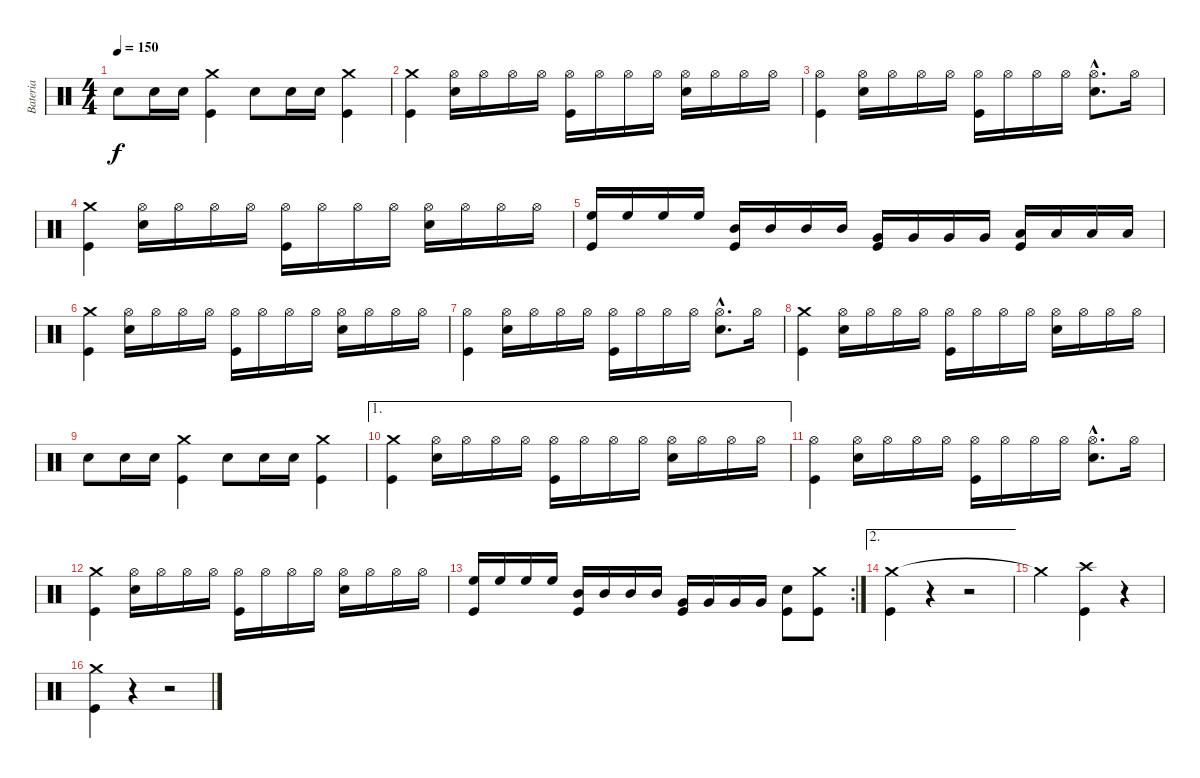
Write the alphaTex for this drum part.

\track ("Bateria" "Bateria") {instrument percussion}
\staff {score}
\articulation defaults
\ts (4 4)
\tempo 150
\clef neutral
\ks c "Snare (hit) 2".8{dy f} "Snare (hit) 2".16 "Snare (hit) 2".16
("Crash medium (hit)" "Kick (hit)").4 "Snare (hit) 2".8 "Snare (hit) 2".16 "Snare (hit) 2".16 ("Crash medium (hit)" "Kick (hit)").4 |
("Crash medium (hit)" "Kick (hit)").4 ("Hi-Hat (open)" "Snare (hit) 2").16 "Hi-Hat (open)".16 "Hi-Hat (open)".16 "Hi-Hat (open)".16 ("Hi-Hat (open)" "Kick (hit)").16 "Hi-Hat (open)".16 "Hi-Hat (open)".16 "Hi-Hat (open)".16 ("Hi-Hat (open)" "Snare (hit) 2").16 "Hi-Hat (open)".16 "Hi-Hat (open)".16 "Hi-Hat (open)".16 |
("Hi-Hat (open)" "Kick (hit)").4 ("Hi-Hat (open)" "Snare (hit) 2").16 "Hi-Hat (open)".16 "Hi-Hat (open)".16 "Hi-Hat (open)".16 ("Hi-Hat (open)" "Kick (hit)").16 "Hi-Hat (open)".16 "Hi-Hat (open)".16 "Hi-Hat (open)".16 ("Hi-Hat (open)"{hac} "Snare (hit) 2"{hac}).8{d} "Hi-Hat (open)".16 |
("Crash medium (hit)" "Kick (hit)").4 ("Hi-Hat (open)" "Snare (hit) 2").16 "Hi-Hat (open)".16 "Hi-Hat (open)".16 "Hi-Hat (open)".16 ("Hi-Hat (open)" "Kick (hit)").16 "Hi-Hat (open)".16 "Hi-Hat (open)".16 "Hi-Hat (open)".16 ("Hi-Hat (open)" "Snare (hit) 2").16 "Hi-Hat (open)".16 "Hi-Hat (open)".16 "Hi-Hat (open)".16 |
("High Floor Tom (hit)" "Kick (hit)").16 "High Floor Tom (hit)".16 "High Floor Tom (hit)".16 "High Floor Tom (hit)".16 ("Mid Tom (hit)" "Kick (hit)").16 "Mid Tom (hit)".16 "Mid Tom (hit)".16 "Mid Tom (hit)".16 ("Very Low Tom (hit)" "Kick (hit)").16 "Very Low Tom (hit)".16 "Very Low Tom (hit)".16 "Very Low Tom (hit)".16 ("Low Floor Tom (hit)" "Kick (hit)").16 "Low Floor Tom (hit)".16 "Low Floor Tom (hit)".16 "Low Floor Tom (hit)".16 |
("Crash medium (hit)" "Kick (hit)").4 ("Hi-Hat (open)" "Snare (hit) 2").16 "Hi-Hat (open)".16 "Hi-Hat (open)".16 "Hi-Hat (open)".16 ("Hi-Hat (open)" "Kick (hit)").16 "Hi-Hat (open)".16 "Hi-Hat (open)".16 "Hi-Hat (open)".16 ("Hi-Hat (open)" "Snare (hit) 2").16 "Hi-Hat (open)".16 "Hi-Hat (open)".16 "Hi-Hat (open)".16 |
("Hi-Hat (open)" "Kick (hit)").4 ("Hi-Hat (open)" "Snare (hit) 2").16 "Hi-Hat (open)".16 "Hi-Hat (open)".16 "Hi-Hat (open)".16 ("Hi-Hat (open)" "Kick (hit)").16 "Hi-Hat (open)".16 "Hi-Hat (open)".16 "Hi-Hat (open)".16 ("Hi-Hat (open)"{hac} "Snare (hit) 2"{hac}).8{d} "Hi-Hat (open)".16 |
("Crash medium (hit)" "Kick (hit)").4 ("Hi-Hat (open)" "Snare (hit) 2").16 "Hi-Hat (open)".16 "Hi-Hat (open)".16 "Hi-Hat (open)".16 ("Hi-Hat (open)" "Kick (hit)").16 "Hi-Hat (open)".16 "Hi-Hat (open)".16 "Hi-Hat (open)".16 ("Hi-Hat (open)" "Snare (hit) 2").16 "Hi-Hat (open)".16 "Hi-Hat (open)".16 "Hi-Hat (open)".16 |
"Snare (hit) 2".8 "Snare (hit) 2".16 "Snare (hit) 2".16 ("Crash medium (hit)" "Kick (hit)").4 "Snare (hit) 2".8 "Snare (hit) 2".16 "Snare (hit) 2".16 ("Crash medium (hit)" "Kick (hit)").4 |
\ae 1
("Crash medium (hit)" "Kick (hit)").4 ("Hi-Hat (open)" "Snare (hit) 2").16 "Hi-Hat (open)".16 "Hi-Hat (open)".16 "Hi-Hat (open)".16 ("Hi-Hat (open)" "Kick (hit)").16 "Hi-Hat (open)".16 "Hi-Hat (open)".16 "Hi-Hat (open)".16 ("Hi-Hat (open)" "Snare (hit) 2").16 "Hi-Hat (open)".16 "Hi-Hat (open)".16 "Hi-Hat (open)".16 |
("Hi-Hat (open)" "Kick (hit)").4 ("Hi-Hat (open)" "Snare (hit) 2").16 "Hi-Hat (open)".16 "Hi-Hat (open)".16 "Hi-Hat (open)".16 ("Hi-Hat (open)" "Kick (hit)").16 "Hi-Hat (open)".16 "Hi-Hat (open)".16 "Hi-Hat (open)".16 ("Hi-Hat (open)"{hac} "Snare (hit) 2"{hac}).8{d} "Hi-Hat (open)".16 |
("Crash medium (hit)" "Kick (hit)").4 ("Hi-Hat (open)" "Snare (hit) 2").16 "Hi-Hat (open)".16 "Hi-Hat (open)".16 "Hi-Hat (open)".16 ("Hi-Hat (open)" "Kick (hit)").16 "Hi-Hat (open)".16 "Hi-Hat (open)".16 "Hi-Hat (open)".16 ("Hi-Hat (open)" "Snare (hit) 2").16 "Hi-Hat (open)".16 "Hi-Hat (open)".16 "Hi-Hat (open)".16 |
\rc 2
("High Floor Tom (hit)" "Kick (hit)").16 "High Floor Tom (hit)".16 "High Floor Tom (hit)".16 "High Floor Tom (hit)".16 ("Mid Tom (hit)" "Kick (hit)").16 "Mid Tom (hit)".16 "Mid Tom (hit)".16 "Mid Tom (hit)".16 ("Very Low Tom (hit)" "Kick (hit)").16 "Very Low Tom (hit)".16 "Very Low Tom (hit)".16 "Very Low Tom (hit)".16 ("Snare (hit) 2" "Kick (hit)").8 ("Crash medium (hit)" "Kick (hit)").8 |
\ae 2
("Crash medium (hit)" "Kick (hit)").4 r.4 r.2 |
"Crash medium (hit)"{t}.2 ("Crash high (hit)" "Kick (hit)").4 r.4 |
("Crash medium (hit)" "Kick (hit)").4 r.4 r.2
